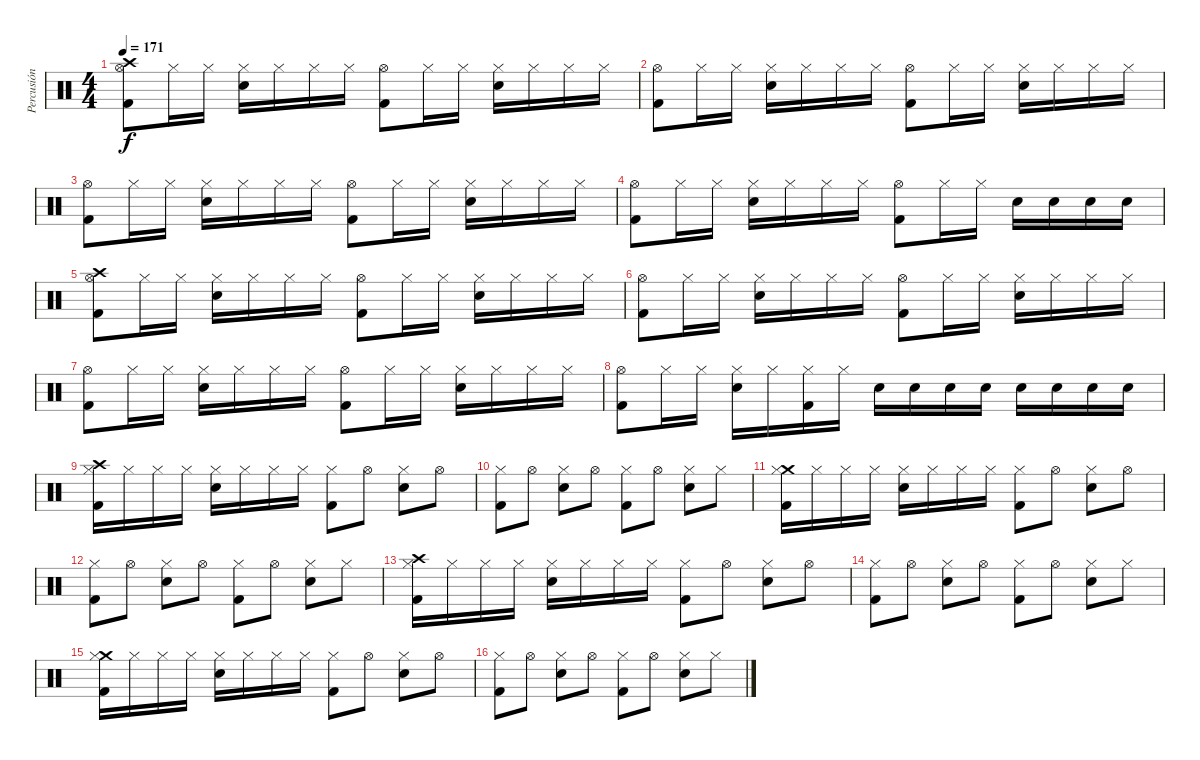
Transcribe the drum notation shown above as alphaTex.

\track ("Percusión" "Percusión") {instrument percussion}
\staff {score}
\articulation defaults
\ts (4 4)
\tempo 171
\clef neutral
\ks c
("Crash high (hit)" "Hi-Hat (open)" "Kick (hit) 2").8{dy f} "Hi-Hat (closed)".16 "Hi-Hat (closed)".16 ("Hi-Hat (closed)" "Electric Snare (hit)").16 "Hi-Hat (closed)".16 "Hi-Hat (closed)".16 "Hi-Hat (closed)".16 ("Hi-Hat (open)" "Kick (hit) 2").8 "Hi-Hat (closed)".16 "Hi-Hat (closed)".16 ("Hi-Hat (closed)" "Electric Snare (hit)").16 "Hi-Hat (closed)".16 "Hi-Hat (closed)".16 "Hi-Hat (closed)".16 |
("Hi-Hat (open)" "Kick (hit) 2").8 "Hi-Hat (closed)".16 "Hi-Hat (closed)".16 ("Hi-Hat (closed)" "Electric Snare (hit)").16 "Hi-Hat (closed)".16 "Hi-Hat (closed)".16 "Hi-Hat (closed)".16 ("Hi-Hat (open)" "Kick (hit) 2").8 "Hi-Hat (closed)".16 "Hi-Hat (closed)".16 ("Hi-Hat (closed)" "Electric Snare (hit)").16 "Hi-Hat (closed)".16 "Hi-Hat (closed)".16 "Hi-Hat (closed)".16 |
("Hi-Hat (open)" "Kick (hit) 2").8 "Hi-Hat (closed)".16 "Hi-Hat (closed)".16 ("Hi-Hat (closed)" "Electric Snare (hit)").16 "Hi-Hat (closed)".16 "Hi-Hat (closed)".16 "Hi-Hat (closed)".16 ("Hi-Hat (open)" "Kick (hit) 2").8 "Hi-Hat (closed)".16 "Hi-Hat (closed)".16 ("Hi-Hat (closed)" "Electric Snare (hit)").16 "Hi-Hat (closed)".16 "Hi-Hat (closed)".16 "Hi-Hat (closed)".16 |
("Hi-Hat (open)" "Kick (hit) 2").8 "Hi-Hat (closed)".16 "Hi-Hat (closed)".16 ("Hi-Hat (closed)" "Electric Snare (hit)").16 "Hi-Hat (closed)".16 "Hi-Hat (closed)".16 "Hi-Hat (closed)".16 ("Hi-Hat (open)" "Kick (hit) 2").8 "Hi-Hat (closed)".16 "Hi-Hat (closed)".16 "Electric Snare (hit)".16 "Electric Snare (hit)".16 "Electric Snare (hit)".16 "Electric Snare (hit)".16 |
("Crash high (hit)" "Hi-Hat (open)" "Kick (hit) 2").8 "Hi-Hat (closed)".16 "Hi-Hat (closed)".16 ("Hi-Hat (closed)" "Electric Snare (hit)").16 "Hi-Hat (closed)".16 "Hi-Hat (closed)".16 "Hi-Hat (closed)".16 ("Hi-Hat (open)" "Kick (hit) 2").8 "Hi-Hat (closed)".16 "Hi-Hat (closed)".16 ("Hi-Hat (closed)" "Electric Snare (hit)").16 "Hi-Hat (closed)".16 "Hi-Hat (closed)".16 "Hi-Hat (closed)".16 |
("Hi-Hat (open)" "Kick (hit) 2").8 "Hi-Hat (closed)".16 "Hi-Hat (closed)".16 ("Hi-Hat (closed)" "Electric Snare (hit)").16 "Hi-Hat (closed)".16 "Hi-Hat (closed)".16 "Hi-Hat (closed)".16 ("Hi-Hat (open)" "Kick (hit) 2").8 "Hi-Hat (closed)".16 "Hi-Hat (closed)".16 ("Hi-Hat (closed)" "Electric Snare (hit)").16 "Hi-Hat (closed)".16 "Hi-Hat (closed)".16 "Hi-Hat (closed)".16 |
("Hi-Hat (open)" "Kick (hit) 2").8 "Hi-Hat (closed)".16 "Hi-Hat (closed)".16 ("Hi-Hat (closed)" "Electric Snare (hit)").16 "Hi-Hat (closed)".16 "Hi-Hat (closed)".16 "Hi-Hat (closed)".16 ("Hi-Hat (open)" "Kick (hit) 2").8 "Hi-Hat (closed)".16 "Hi-Hat (closed)".16 ("Hi-Hat (closed)" "Electric Snare (hit)").16 "Hi-Hat (closed)".16 "Hi-Hat (closed)".16 "Hi-Hat (closed)".16 |
("Hi-Hat (open)" "Kick (hit) 2").8 "Hi-Hat (closed)".16 "Hi-Hat (closed)".16 ("Hi-Hat (closed)" "Electric Snare (hit)").16 "Hi-Hat (closed)".16 ("Hi-Hat (closed)" "Kick (hit) 2").16 "Hi-Hat (closed)".16 "Electric Snare (hit)".16 "Electric Snare (hit)".16 "Electric Snare (hit)".16 "Electric Snare (hit)".16 "Electric Snare (hit)".16 "Electric Snare (hit)".16 "Electric Snare (hit)".16 "Electric Snare (hit)".16 |
("Crash high (hit)" "Hi-Hat (closed)" "Kick (hit) 2").16 "Hi-Hat (closed)".16 "Hi-Hat (closed)".16 "Hi-Hat (closed)".16 ("Hi-Hat (closed)" "Electric Snare (hit)").16 "Hi-Hat (closed)".16 "Hi-Hat (closed)".16 "Hi-Hat (closed)".16 ("Hi-Hat (closed)" "Kick (hit) 2").8 "Hi-Hat (open)".8 ("Hi-Hat (closed)" "Electric Snare (hit)").8 "Hi-Hat (open)".8 |
("Hi-Hat (closed)" "Kick (hit) 2").8 "Hi-Hat (open)".8 ("Hi-Hat (closed)" "Electric Snare (hit)").8 "Hi-Hat (open)".8 ("Hi-Hat (closed)" "Kick (hit) 2").8 "Hi-Hat (open)".8 ("Hi-Hat (closed)" "Electric Snare (hit)").8 "Hi-Hat (closed)".8 |
("Crash medium (hit)" "Hi-Hat (closed)" "Kick (hit) 2").16 "Hi-Hat (closed)".16 "Hi-Hat (closed)".16 "Hi-Hat (closed)".16 ("Hi-Hat (closed)" "Electric Snare (hit)").16 "Hi-Hat (closed)".16 "Hi-Hat (closed)".16 "Hi-Hat (closed)".16 ("Hi-Hat (closed)" "Kick (hit) 2").8 "Hi-Hat (open)".8 ("Hi-Hat (closed)" "Electric Snare (hit)").8 "Hi-Hat (open)".8 |
("Hi-Hat (closed)" "Kick (hit) 2").8 "Hi-Hat (open)".8 ("Hi-Hat (closed)" "Electric Snare (hit)").8 "Hi-Hat (open)".8 ("Hi-Hat (closed)" "Kick (hit) 2").8 "Hi-Hat (open)".8 ("Hi-Hat (closed)" "Electric Snare (hit)").8 "Hi-Hat (closed)".8 |
("Crash high (hit)" "Hi-Hat (closed)" "Kick (hit) 2").16 "Hi-Hat (closed)".16 "Hi-Hat (closed)".16 "Hi-Hat (closed)".16 ("Hi-Hat (closed)" "Electric Snare (hit)").16 "Hi-Hat (closed)".16 "Hi-Hat (closed)".16 "Hi-Hat (closed)".16 ("Hi-Hat (closed)" "Kick (hit) 2").8 "Hi-Hat (open)".8 ("Hi-Hat (closed)" "Electric Snare (hit)").8 "Hi-Hat (open)".8 |
("Hi-Hat (closed)" "Kick (hit) 2").8 "Hi-Hat (open)".8 ("Hi-Hat (closed)" "Electric Snare (hit)").8 "Hi-Hat (open)".8 ("Hi-Hat (closed)" "Kick (hit) 2").8 "Hi-Hat (open)".8 ("Hi-Hat (closed)" "Electric Snare (hit)").8 "Hi-Hat (closed)".8 |
("Crash medium (hit)" "Hi-Hat (closed)" "Kick (hit) 2").16 "Hi-Hat (closed)".16 "Hi-Hat (closed)".16 "Hi-Hat (closed)".16 ("Hi-Hat (closed)" "Electric Snare (hit)").16 "Hi-Hat (closed)".16 "Hi-Hat (closed)".16 "Hi-Hat (closed)".16 ("Hi-Hat (closed)" "Kick (hit) 2").8 "Hi-Hat (open)".8 ("Hi-Hat (closed)" "Electric Snare (hit)").8 "Hi-Hat (open)".8 |
("Hi-Hat (closed)" "Kick (hit) 2").8 "Hi-Hat (open)".8 ("Hi-Hat (closed)" "Electric Snare (hit)").8 "Hi-Hat (open)".8 ("Hi-Hat (closed)" "Kick (hit) 2").8 "Hi-Hat (open)".8 ("Hi-Hat (closed)" "Electric Snare (hit)").8 "Hi-Hat (closed)".8
